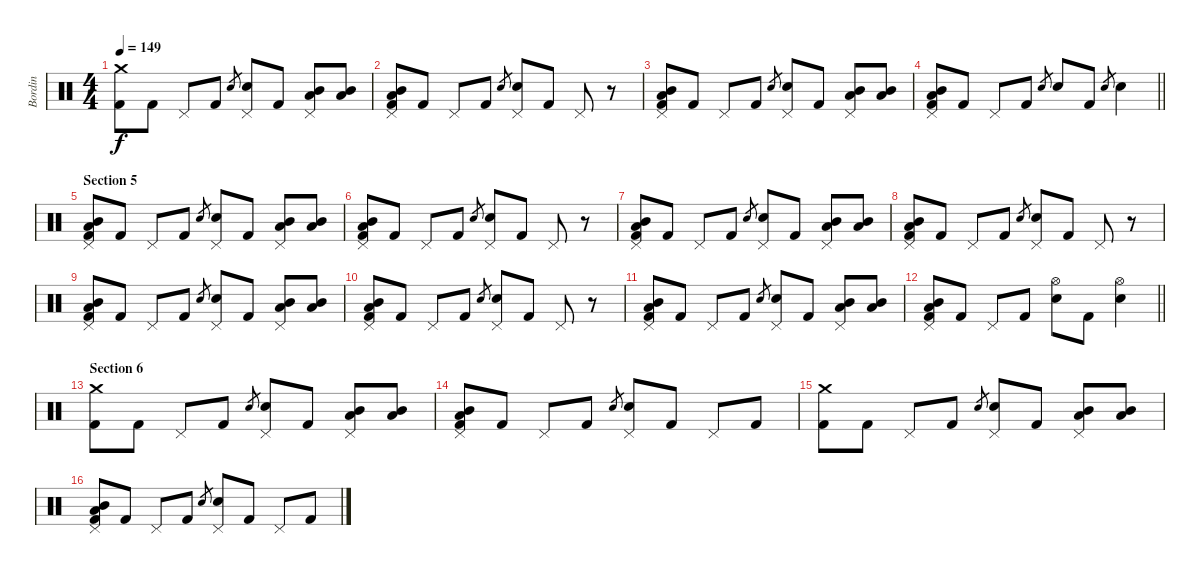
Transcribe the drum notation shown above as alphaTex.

\track ("Bordin" "Bordin") {instrument percussion}
\staff {score}
\articulation defaults
\ts (4 4)
\tempo 149
\clef neutral
\ks c
("Crash medium (hit)" "Kick (hit) 2").8{dy f} "Kick (hit) 2".8 "Pedal Hi-Hat (hit)".8 "Kick (hit) 2".8 "Electric Snare (hit)".8{gr} ("Pedal Hi-Hat (hit)" "Electric Snare (hit)").8 "Kick (hit) 2".8 ("Low Tom (hit)" "Mid Tom (hit)" "Pedal Hi-Hat (hit)").8 ("Low Tom (hit)" "Mid Tom (hit)").8 |
("Mid Tom (hit)" "Low Tom (hit)" "Pedal Hi-Hat (hit)" "Kick (hit) 2").8 "Kick (hit) 2".8 "Pedal Hi-Hat (hit)".8 "Kick (hit) 2".8 "Electric Snare (hit)".8{gr} ("Pedal Hi-Hat (hit)" "Electric Snare (hit)").8 "Kick (hit) 2".8 "Pedal Hi-Hat (hit)".8 r.8 |
("Mid Tom (hit)" "Low Tom (hit)" "Pedal Hi-Hat (hit)" "Kick (hit) 2").8 "Kick (hit) 2".8 "Pedal Hi-Hat (hit)".8 "Kick (hit) 2".8 "Electric Snare (hit)".8{gr} ("Pedal Hi-Hat (hit)" "Electric Snare (hit)").8 "Kick (hit) 2".8 ("Low Tom (hit)" "Mid Tom (hit)" "Pedal Hi-Hat (hit)").8 ("Low Tom (hit)" "Mid Tom (hit)").8 |
\barLineRight lightlight
("Mid Tom (hit)" "Low Tom (hit)" "Pedal Hi-Hat (hit)" "Kick (hit) 2").8 "Kick (hit) 2".8 "Pedal Hi-Hat (hit)".8 "Kick (hit) 2".8 "Electric Snare (hit)".8{gr} "Electric Snare (hit)".8 "Kick (hit) 2".8 "Electric Snare (hit)".8{gr} "Electric Snare (hit)".4 |
\section ("" "Section 5")
("Mid Tom (hit)" "Low Tom (hit)" "Pedal Hi-Hat (hit)" "Kick (hit) 2").8 "Kick (hit) 2".8 "Pedal Hi-Hat (hit)".8 "Kick (hit) 2".8 "Electric Snare (hit)".8{gr} ("Pedal Hi-Hat (hit)" "Electric Snare (hit)").8 "Kick (hit) 2".8 ("Low Tom (hit)" "Mid Tom (hit)" "Pedal Hi-Hat (hit)").8 ("Low Tom (hit)" "Mid Tom (hit)").8 |
("Mid Tom (hit)" "Low Tom (hit)" "Pedal Hi-Hat (hit)" "Kick (hit) 2").8 "Kick (hit) 2".8 "Pedal Hi-Hat (hit)".8 "Kick (hit) 2".8 "Electric Snare (hit)".8{gr} ("Pedal Hi-Hat (hit)" "Electric Snare (hit)").8 "Kick (hit) 2".8 "Pedal Hi-Hat (hit)".8 r.8 |
("Mid Tom (hit)" "Low Tom (hit)" "Pedal Hi-Hat (hit)" "Kick (hit) 2").8 "Kick (hit) 2".8 "Pedal Hi-Hat (hit)".8 "Kick (hit) 2".8 "Electric Snare (hit)".8{gr} ("Pedal Hi-Hat (hit)" "Electric Snare (hit)").8 "Kick (hit) 2".8 ("Low Tom (hit)" "Mid Tom (hit)" "Pedal Hi-Hat (hit)").8 ("Low Tom (hit)" "Mid Tom (hit)").8 |
("Mid Tom (hit)" "Low Tom (hit)" "Pedal Hi-Hat (hit)" "Kick (hit) 2").8 "Kick (hit) 2".8 "Pedal Hi-Hat (hit)".8 "Kick (hit) 2".8 "Electric Snare (hit)".8{gr} ("Pedal Hi-Hat (hit)" "Electric Snare (hit)").8 "Kick (hit) 2".8 "Pedal Hi-Hat (hit)".8 r.8 |
("Mid Tom (hit)" "Low Tom (hit)" "Pedal Hi-Hat (hit)" "Kick (hit) 2").8 "Kick (hit) 2".8 "Pedal Hi-Hat (hit)".8 "Kick (hit) 2".8 "Electric Snare (hit)".8{gr} ("Pedal Hi-Hat (hit)" "Electric Snare (hit)").8 "Kick (hit) 2".8 ("Low Tom (hit)" "Mid Tom (hit)" "Pedal Hi-Hat (hit)").8 ("Low Tom (hit)" "Mid Tom (hit)").8 |
("Mid Tom (hit)" "Low Tom (hit)" "Pedal Hi-Hat (hit)" "Kick (hit) 2").8 "Kick (hit) 2".8 "Pedal Hi-Hat (hit)".8 "Kick (hit) 2".8 "Electric Snare (hit)".8{gr} ("Pedal Hi-Hat (hit)" "Electric Snare (hit)").8 "Kick (hit) 2".8 "Pedal Hi-Hat (hit)".8 r.8 |
("Mid Tom (hit)" "Low Tom (hit)" "Pedal Hi-Hat (hit)" "Kick (hit) 2").8 "Kick (hit) 2".8 "Pedal Hi-Hat (hit)".8 "Kick (hit) 2".8 "Electric Snare (hit)".8{gr} ("Pedal Hi-Hat (hit)" "Electric Snare (hit)").8 "Kick (hit) 2".8 ("Low Tom (hit)" "Mid Tom (hit)" "Pedal Hi-Hat (hit)").8 ("Low Tom (hit)" "Mid Tom (hit)").8 |
\barLineRight lightlight
("Mid Tom (hit)" "Low Tom (hit)" "Pedal Hi-Hat (hit)" "Kick (hit) 2").8 "Kick (hit) 2".8 "Pedal Hi-Hat (hit)".8 "Kick (hit) 2".8 ("Hi-Hat (open)" "Electric Snare (hit)").8 "Kick (hit) 2".8 ("Hi-Hat (open)" "Electric Snare (hit)").4 |
\section ("" "Section 6")
("Crash medium (hit)" "Kick (hit) 2").8 "Kick (hit) 2".8 "Pedal Hi-Hat (hit)".8 "Kick (hit) 2".8 "Electric Snare (hit)".8{gr} ("Pedal Hi-Hat (hit)" "Electric Snare (hit)").8 "Kick (hit) 2".8 ("Low Tom (hit)" "Mid Tom (hit)" "Pedal Hi-Hat (hit)").8 ("Low Tom (hit)" "Mid Tom (hit)").8 |
("Mid Tom (hit)" "Low Tom (hit)" "Pedal Hi-Hat (hit)" "Kick (hit) 2").8 "Kick (hit) 2".8 "Pedal Hi-Hat (hit)".8 "Kick (hit) 2".8 "Electric Snare (hit)".8{gr} ("Pedal Hi-Hat (hit)" "Electric Snare (hit)").8 "Kick (hit) 2".8 "Pedal Hi-Hat (hit)".8 "Kick (hit) 2".8 |
("Crash medium (hit)" "Kick (hit) 2").8 "Kick (hit) 2".8 "Pedal Hi-Hat (hit)".8 "Kick (hit) 2".8 "Electric Snare (hit)".8{gr} ("Pedal Hi-Hat (hit)" "Electric Snare (hit)").8 "Kick (hit) 2".8 ("Low Tom (hit)" "Mid Tom (hit)" "Pedal Hi-Hat (hit)").8 ("Low Tom (hit)" "Mid Tom (hit)").8 |
("Mid Tom (hit)" "Low Tom (hit)" "Pedal Hi-Hat (hit)" "Kick (hit) 2").8 "Kick (hit) 2".8 "Pedal Hi-Hat (hit)".8 "Kick (hit) 2".8 "Electric Snare (hit)".8{gr} ("Pedal Hi-Hat (hit)" "Electric Snare (hit)").8 "Kick (hit) 2".8 "Pedal Hi-Hat (hit)".8 "Kick (hit) 2".8
